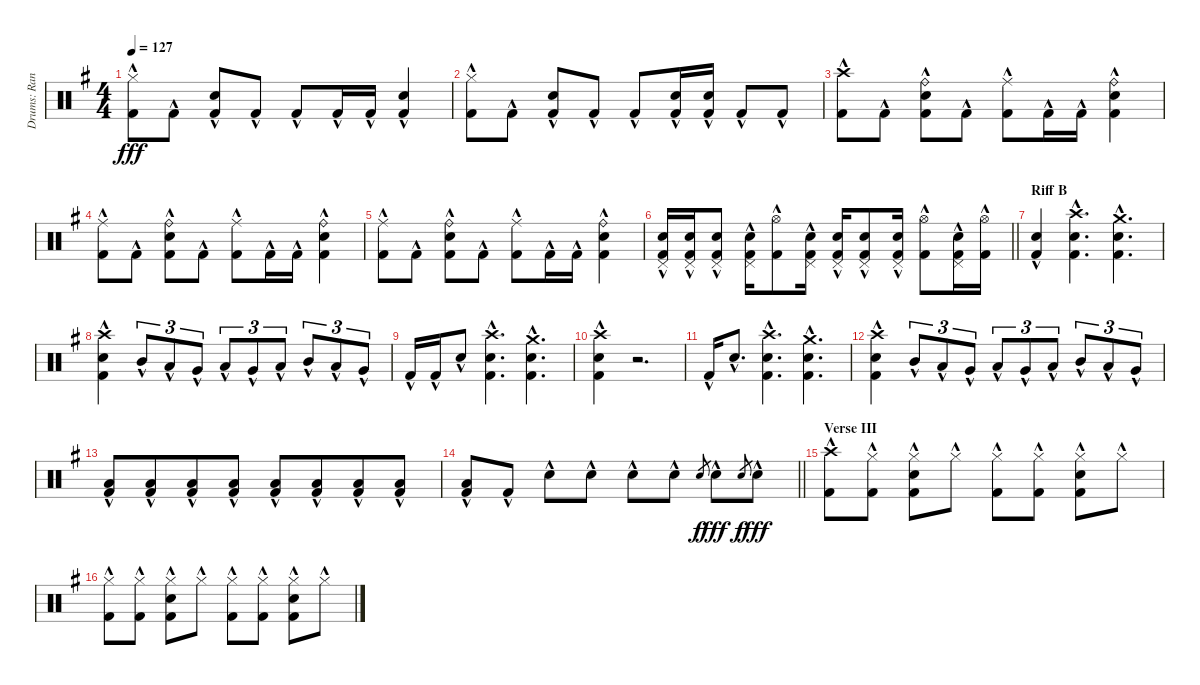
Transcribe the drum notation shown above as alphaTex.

\track ("Drums: Randy" "Drums: Ran") {instrument percussion}
\staff {score}
\articulation defaults
\ts (4 4)
\tempo 127
\clef neutral
\ks g
("Hi-Hat (closed)"{hac} "Kick (hit) 2"{hac}).8{dy fff} "Kick (hit) 2"{hac}.8 ("Snare (hit) 2"{hac} "Kick (hit) 2"{hac}).8 "Kick (hit) 2"{hac}.8 "Kick (hit) 2"{hac}.8 "Kick (hit) 2"{hac}.16 "Kick (hit) 2"{hac}.16 ("Snare (hit) 2"{hac} "Kick (hit) 2"{hac}).4 |
("Hi-Hat (closed)"{hac} "Kick (hit) 2"{hac}).8 "Kick (hit) 2"{hac}.8 ("Snare (hit) 2"{hac} "Kick (hit) 2"{hac}).8 "Kick (hit) 2"{hac}.8 "Kick (hit) 2"{hac}.8 ("Snare (hit) 2"{hac} "Kick (hit) 2"{hac}).16 ("Snare (hit) 2"{hac} "Kick (hit) 2"{hac}).16 "Kick (hit) 2"{hac}.8 "Kick (hit) 2"{hac}.8 |
("Crash high (hit)"{hac} "Kick (hit) 2"{hac}).8 "Kick (hit) 2"{hac}.8 ("Ride (bell)"{hac} "Snare (hit) 2"{hac} "Kick (hit) 2"{hac}).8 "Kick (hit) 2"{hac}.8 ("Ride (middle)"{hac} "Kick (hit) 2"{hac}).8 "Kick (hit) 2"{hac}.16 "Kick (hit) 2"{hac}.16 ("Ride (bell)"{hac} "Snare (hit) 2"{hac} "Kick (hit) 2"{hac}).4 |
("Ride (middle)"{hac} "Kick (hit) 2"{hac}).8 "Kick (hit) 2"{hac}.8 ("Ride (bell)"{hac} "Snare (hit) 2"{hac} "Kick (hit) 2"{hac}).8 "Kick (hit) 2"{hac}.8 ("Ride (middle)"{hac} "Kick (hit) 2"{hac}).8 "Kick (hit) 2"{hac}.16 "Kick (hit) 2"{hac}.16 ("Ride (bell)"{hac} "Snare (hit) 2"{hac} "Kick (hit) 2"{hac}).4 |
("Ride (middle)"{hac} "Kick (hit) 2"{hac}).8 "Kick (hit) 2"{hac}.8 ("Ride (bell)"{hac} "Snare (hit) 2"{hac} "Kick (hit) 2"{hac}).8 "Kick (hit) 2"{hac}.8 ("Ride (middle)"{hac} "Kick (hit) 2"{hac}).8 "Kick (hit) 2"{hac}.16 "Kick (hit) 2"{hac}.16 ("Ride (bell)"{hac} "Snare (hit) 2"{hac} "Kick (hit) 2"{hac}).4 |
\barLineRight lightlight
("Pedal Hi-Hat (hit)"{hac} "Snare (hit) 2"{hac} "Kick (hit) 2"{hac}).16 ("Pedal Hi-Hat (hit)"{hac} "Snare (hit) 2"{hac} "Kick (hit) 2"{hac}).16 ("Pedal Hi-Hat (hit)"{hac} "Snare (hit) 2"{hac} "Kick (hit) 2"{hac}).8 ("Pedal Hi-Hat (hit)"{hac} "Snare (hit) 2"{hac} "Kick (hit) 2"{hac}).16 ("Hi-Hat (open)"{hac} "Kick (hit) 2"{hac}).8 ("Pedal Hi-Hat (hit)"{hac} "Snare (hit) 2"{hac} "Kick (hit) 2"{hac}).16 ("Pedal Hi-Hat (hit)"{hac} "Snare (hit) 2"{hac} "Kick (hit) 2"{hac}).16 ("Pedal Hi-Hat (hit)"{hac} "Snare (hit) 2"{hac} "Kick (hit) 2"{hac}).8 ("Pedal Hi-Hat (hit)"{hac} "Snare (hit) 2"{hac} "Kick (hit) 2"{hac}).16 ("Hi-Hat (open)"{hac} "Kick (hit) 2"{hac}).8 ("Pedal Hi-Hat (hit)"{hac} "Snare (hit) 2"{hac} "Kick (hit) 2"{hac}).16 ("Hi-Hat (open)"{hac} "Kick (hit) 2"{hac}).16 |
\section ("" "Riff B")
("Snare (hit) 2"{hac} "Kick (hit) 2"{hac}).4 ("Crash high (hit)"{hac} "Snare (hit) 2"{hac} "Kick (hit) 2"{hac}).4{d} ("Crash medium (hit)"{hac} "Snare (hit) 2"{hac} "Kick (hit) 2"{hac}).4{d} |
("Crash high (hit)"{hac} "Snare (hit) 2"{hac} "Kick (hit) 2"{hac}).4 "Mid Tom (hit)"{hac}.8{tu (3 2)} "Low Tom (hit)"{hac}.8{tu (3 2)} "Very Low Tom (hit)"{hac}.8{tu (3 2)} "Low Floor Tom (hit)"{hac}.8{tu (3 2)} "Very Low Tom (hit)"{hac}.8{tu (3 2)} "Low Floor Tom (hit)"{hac}.8{tu (3 2)} "Mid Tom (hit)"{hac}.8{tu (3 2)} "Low Tom (hit)"{hac}.8{tu (3 2)} "Very Low Tom (hit)"{hac}.8{tu (3 2)} |
"Kick (hit) 2"{hac}.16 "Kick (hit) 2"{hac}.16 "Snare (hit) 2"{hac}.8 ("Crash high (hit)"{hac} "Snare (hit) 2"{hac} "Kick (hit) 2"{hac}).4{d} ("Crash medium (hit)"{hac} "Snare (hit) 2"{hac} "Kick (hit) 2"{hac}).4{d} |
("Crash high (hit)"{hac} "Snare (hit) 2"{hac} "Kick (hit) 2"{hac}).4 r.2{d} |
"Kick (hit) 2"{hac}.16 "Snare (hit) 2"{hac}.8{d} ("Crash high (hit)"{hac} "Snare (hit) 2"{hac} "Kick (hit) 2"{hac}).4{d} ("Crash medium (hit)"{hac} "Snare (hit) 2"{hac} "Kick (hit) 2"{hac}).4{d} |
("Crash high (hit)"{hac} "Snare (hit) 2"{hac} "Kick (hit) 2"{hac}).4 "Mid Tom (hit)"{hac}.8{tu (3 2)} "Low Tom (hit)"{hac}.8{tu (3 2)} "Very Low Tom (hit)"{hac}.8{tu (3 2)} "Low Floor Tom (hit)"{hac}.8{tu (3 2)} "Very Low Tom (hit)"{hac}.8{tu (3 2)} "Low Floor Tom (hit)"{hac}.8{tu (3 2)} "Mid Tom (hit)"{hac}.8{tu (3 2)} "Low Tom (hit)"{hac}.8{tu (3 2)} "Very Low Tom (hit)"{hac}.8{tu (3 2)} |
("Low Tom (hit)"{hac} "Kick (hit) 2"{hac}).8 ("Low Tom (hit)"{hac} "Kick (hit) 2"{hac}).8{beam merge} ("Low Tom (hit)"{hac} "Kick (hit) 2"{hac}).8 ("Low Tom (hit)"{hac} "Kick (hit) 2"{hac}).8 ("Low Tom (hit)"{hac} "Kick (hit) 2"{hac}).8 ("Low Tom (hit)"{hac} "Kick (hit) 2"{hac}).8{beam merge} ("Low Tom (hit)"{hac} "Kick (hit) 2"{hac}).8 ("Low Tom (hit)"{hac} "Kick (hit) 2"{hac}).8 |
\barLineRight lightlight
("Low Tom (hit)"{hac} "Kick (hit) 2"{hac}).8 "Kick (hit) 2"{hac}.8 "Snare (hit) 2"{hac}.8 "Snare (hit) 2"{hac}.8 "Snare (hit) 2"{hac}.8 "Snare (hit) 2"{hac}.8 "Electric Snare (hit)".8{gr dy f} "Snare (hit) 2"{hac}.8{dy fff} "Electric Snare (hit)".8{gr dy f} "Snare (hit) 2"{hac}.8{dy fff} |
\section ("" "Verse III")
("Crash high (hit)"{hac} "Kick (hit) 2"{hac}).8 ("Hi-Hat (closed)"{hac} "Kick (hit) 2"{hac}).8 ("Hi-Hat (closed)"{hac} "Snare (hit) 2"{hac} "Kick (hit) 2"{hac}).8 "Hi-Hat (closed)"{hac}.8 ("Hi-Hat (closed)"{hac} "Kick (hit) 2"{hac}).8 ("Hi-Hat (closed)"{hac} "Kick (hit) 2"{hac}).8 ("Hi-Hat (closed)"{hac} "Snare (hit) 2"{hac} "Kick (hit) 2"{hac}).8 "Hi-Hat (closed)"{hac}.8 |
("Hi-Hat (closed)"{hac} "Kick (hit) 2"{hac}).8 ("Hi-Hat (closed)"{hac} "Kick (hit) 2"{hac}).8 ("Hi-Hat (closed)"{hac} "Snare (hit) 2"{hac} "Kick (hit) 2"{hac}).8 "Hi-Hat (closed)"{hac}.8 ("Hi-Hat (closed)"{hac} "Kick (hit) 2"{hac}).8 ("Hi-Hat (closed)"{hac} "Kick (hit) 2"{hac}).8 ("Hi-Hat (closed)"{hac} "Snare (hit) 2"{hac} "Kick (hit) 2"{hac}).8 "Hi-Hat (closed)"{hac}.8
